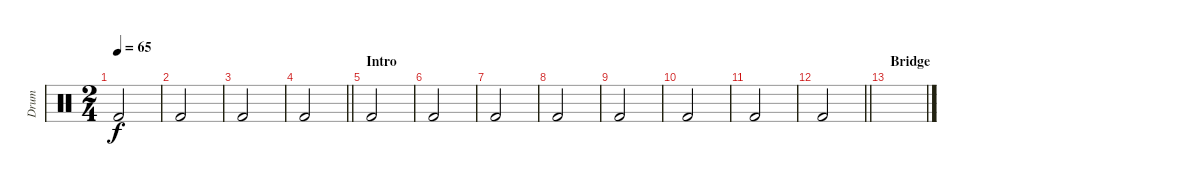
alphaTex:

\track ("Drum" "Drum") {instrument percussion}
\staff {score}
\articulation defaults
\ts (2 4)
\tempo 65
\clef neutral
\ks c "Kick (hit) 2".2{dy f}
|
"Kick (hit) 2".2 |
"Kick (hit) 2".2 |
\barLineRight lightlight "Kick (hit) 2".2
|
\section ("" "Intro")
"Kick (hit) 2".2 |
"Kick (hit) 2".2 |
"Kick (hit) 2".2 |
"Kick (hit) 2".2 |
"Kick (hit) 2".2 |
"Kick (hit) 2".2 |
"Kick (hit) 2".2 |
\barLineRight lightlight "Kick (hit) 2".2
|
\section ("" "Bridge")
